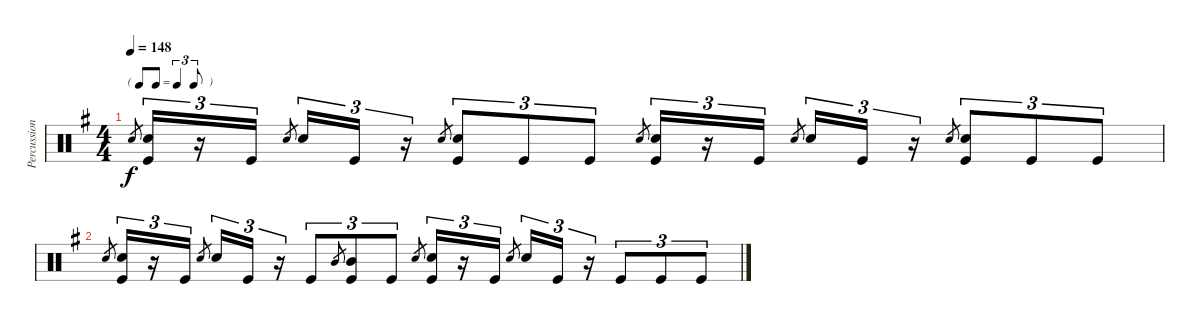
\track ("Percussion" "Percussion") {instrument percussion}
\staff {score}
\articulation defaults
\ts (4 4)
\tf triplet8th
\tempo 148
\clef neutral
\ks g "Snare (hit) 2".8{gr dy f}
("Snare (hit) 2" "Kick (hit)").16{tu (3 2)} r.16{tu (3 2)} "Kick (hit)".16{tu (3 2)} "Snare (hit) 2".8{gr beam splitsecondary} "Snare (hit) 2".16{tu (3 2)} "Kick (hit)".16{tu (3 2)} r.16{tu (3 2)} "Snare (hit) 2".8{gr} ("Snare (hit) 2" "Kick (hit)").8{tu (3 2)} "Kick (hit)".8{tu (3 2)} "Kick (hit)".8{tu (3 2)} "Snare (hit) 2".8{gr} ("Snare (hit) 2" "Kick (hit)").16{tu (3 2)} r.16{tu (3 2)} "Kick (hit)".16{tu (3 2)} "Snare (hit) 2".8{gr beam splitsecondary} "Snare (hit) 2".16{tu (3 2)} "Kick (hit)".16{tu (3 2)} r.16{tu (3 2)} "Snare (hit) 2".8{gr} ("Snare (hit) 2" "Kick (hit)").8{tu (3 2)} "Kick (hit)".8{tu (3 2)} "Kick (hit)".8{tu (3 2)} |
"Snare (hit) 2".8{gr} ("Snare (hit) 2" "Kick (hit)").16{tu (3 2)} r.16{tu (3 2)} "Kick (hit)".16{tu (3 2)} "Snare (hit) 2".8{gr beam splitsecondary} "Snare (hit) 2".16{tu (3 2)} "Kick (hit)".16{tu (3 2)} r.16{tu (3 2)} "Kick (hit)".8{tu (3 2)} "Mid Tom (hit)".8{gr} ("Mid Tom (hit)" "Kick (hit)").8{tu (3 2)} "Kick (hit)".8{tu (3 2)} "Snare (hit) 2".8{gr} ("Snare (hit) 2" "Kick (hit)").16{tu (3 2)} r.16{tu (3 2)} "Kick (hit)".16{tu (3 2)} "Snare (hit) 2".8{gr beam splitsecondary} "Snare (hit) 2".16{tu (3 2)} "Kick (hit)".16{tu (3 2)} r.16{tu (3 2)} "Kick (hit)".8{tu (3 2)} "Kick (hit)".8{tu (3 2)} "Kick (hit)".8{tu (3 2)}
